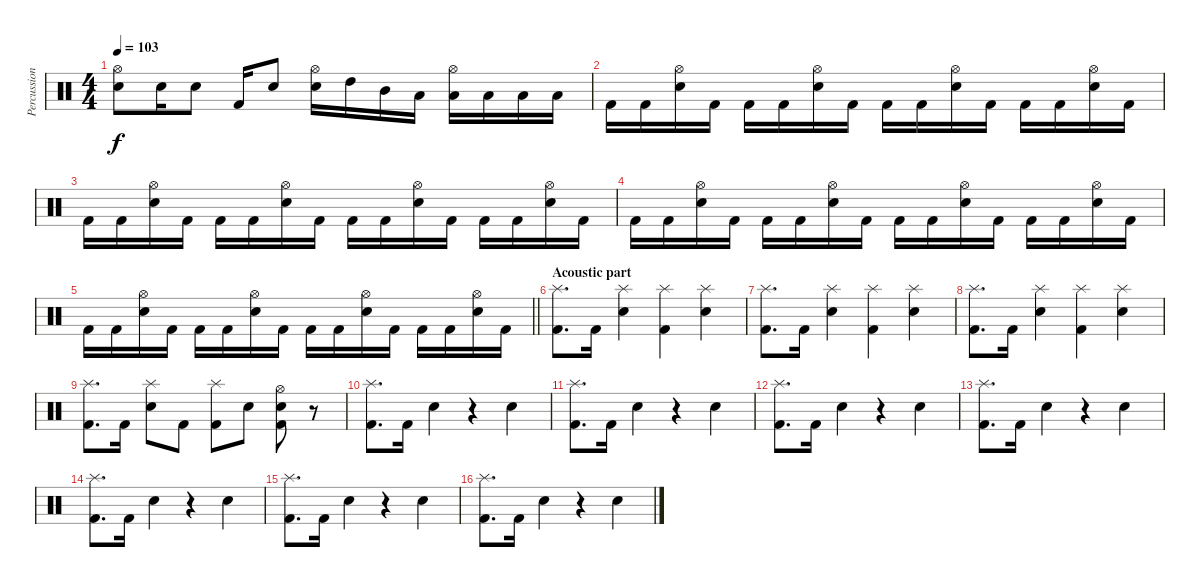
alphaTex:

\track ("Percussion" "Percussion") {instrument percussion}
\staff {score}
\articulation defaults
\ts (4 4)
\tempo 103
\clef neutral
\ks aminor
("Hi-Hat (open)" "Electric Snare (hit)").8{dy f} "Electric Snare (hit)".16 "Electric Snare (hit)".8 "Kick (hit) 2".16 "Electric Snare (hit)".8 ("Hi-Hat (open)" "Electric Snare (hit)").16 "High Tom (hit)".16 "Mid Tom (hit)".16 "Low Tom (hit)".16 ("Hi-Hat (open)" "Low Floor Tom (hit)").16 "Low Floor Tom (hit)".16 "Low Tom (hit)".16 "Low Tom (hit)".16 |
"Kick (hit) 2".16 "Kick (hit) 2".16 ("Hi-Hat (open)" "Electric Snare (hit)").16 "Kick (hit) 2".16 "Kick (hit) 2".16 "Kick (hit) 2".16 ("Hi-Hat (open)" "Electric Snare (hit)").16 "Kick (hit) 2".16 "Kick (hit) 2".16 "Kick (hit) 2".16 ("Hi-Hat (open)" "Electric Snare (hit)").16 "Kick (hit) 2".16 "Kick (hit) 2".16 "Kick (hit) 2".16 ("Hi-Hat (open)" "Electric Snare (hit)").16 "Kick (hit) 2".16 |
"Kick (hit) 2".16 "Kick (hit) 2".16 ("Hi-Hat (open)" "Electric Snare (hit)").16 "Kick (hit) 2".16 "Kick (hit) 2".16 "Kick (hit) 2".16 ("Hi-Hat (open)" "Electric Snare (hit)").16 "Kick (hit) 2".16 "Kick (hit) 2".16 "Kick (hit) 2".16 ("Hi-Hat (open)" "Electric Snare (hit)").16 "Kick (hit) 2".16 "Kick (hit) 2".16 "Kick (hit) 2".16 ("Hi-Hat (open)" "Electric Snare (hit)").16 "Kick (hit) 2".16 |
"Kick (hit) 2".16 "Kick (hit) 2".16 ("Hi-Hat (open)" "Electric Snare (hit)").16 "Kick (hit) 2".16 "Kick (hit) 2".16 "Kick (hit) 2".16 ("Hi-Hat (open)" "Electric Snare (hit)").16 "Kick (hit) 2".16 "Kick (hit) 2".16 "Kick (hit) 2".16 ("Hi-Hat (open)" "Electric Snare (hit)").16 "Kick (hit) 2".16 "Kick (hit) 2".16 "Kick (hit) 2".16 ("Hi-Hat (open)" "Electric Snare (hit)").16 "Kick (hit) 2".16 |
\barLineRight lightlight "Kick (hit) 2".16 "Kick (hit) 2".16
("Hi-Hat (open)" "Electric Snare (hit)").16 "Kick (hit) 2".16 "Kick (hit) 2".16 "Kick (hit) 2".16 ("Hi-Hat (open)" "Electric Snare (hit)").16 "Kick (hit) 2".16 "Kick (hit) 2".16 "Kick (hit) 2".16 ("Hi-Hat (open)" "Electric Snare (hit)").16 "Kick (hit) 2".16 "Kick (hit) 2".16 "Kick (hit) 2".16 ("Hi-Hat (open)" "Electric Snare (hit)").16 "Kick (hit) 2".16 |
\section ("" "Acoustic part")
("Splash (hit)" "Kick (hit) 2").8{d} "Kick (hit) 2".16 ("Splash (hit)" "Electric Snare (hit)").4 ("Splash (hit)" "Kick (hit) 2").4 ("Splash (hit)" "Electric Snare (hit)").4 |
("Splash (hit)" "Kick (hit) 2").8{d} "Kick (hit) 2".16 ("Splash (hit)" "Electric Snare (hit)").4 ("Splash (hit)" "Kick (hit) 2").4 ("Splash (hit)" "Electric Snare (hit)").4 |
("Splash (hit)" "Kick (hit) 2").8{d} "Kick (hit) 2".16 ("Splash (hit)" "Electric Snare (hit)").4 ("Splash (hit)" "Kick (hit) 2").4 ("Splash (hit)" "Electric Snare (hit)").4 |
("Splash (hit)" "Kick (hit) 2").8{d} "Kick (hit) 2".16 ("Splash (hit)" "Electric Snare (hit)").8 "Kick (hit) 2".8 ("Splash (hit)" "Kick (hit) 2").8 "Electric Snare (hit)".8 ("Hi-Hat (open)" "Electric Snare (hit)" "Kick (hit) 2").8 r.8 |
("Splash (hit)" "Kick (hit) 2").8{d} "Kick (hit) 2".16 "Electric Snare (hit)".4 r.4 "Electric Snare (hit)".4 |
("Splash (hit)" "Kick (hit) 2").8{d} "Kick (hit) 2".16 "Electric Snare (hit)".4 r.4 "Electric Snare (hit)".4 |
("Splash (hit)" "Kick (hit) 2").8{d} "Kick (hit) 2".16 "Electric Snare (hit)".4 r.4 "Electric Snare (hit)".4 |
("Splash (hit)" "Kick (hit) 2").8{d} "Kick (hit) 2".16 "Electric Snare (hit)".4 r.4 "Electric Snare (hit)".4 |
("Splash (hit)" "Kick (hit) 2").8{d} "Kick (hit) 2".16 "Electric Snare (hit)".4 r.4 "Electric Snare (hit)".4 |
("Splash (hit)" "Kick (hit) 2").8{d} "Kick (hit) 2".16 "Electric Snare (hit)".4 r.4 "Electric Snare (hit)".4 |
("Splash (hit)" "Kick (hit) 2").8{d} "Kick (hit) 2".16 "Electric Snare (hit)".4 r.4 "Electric Snare (hit)".4
